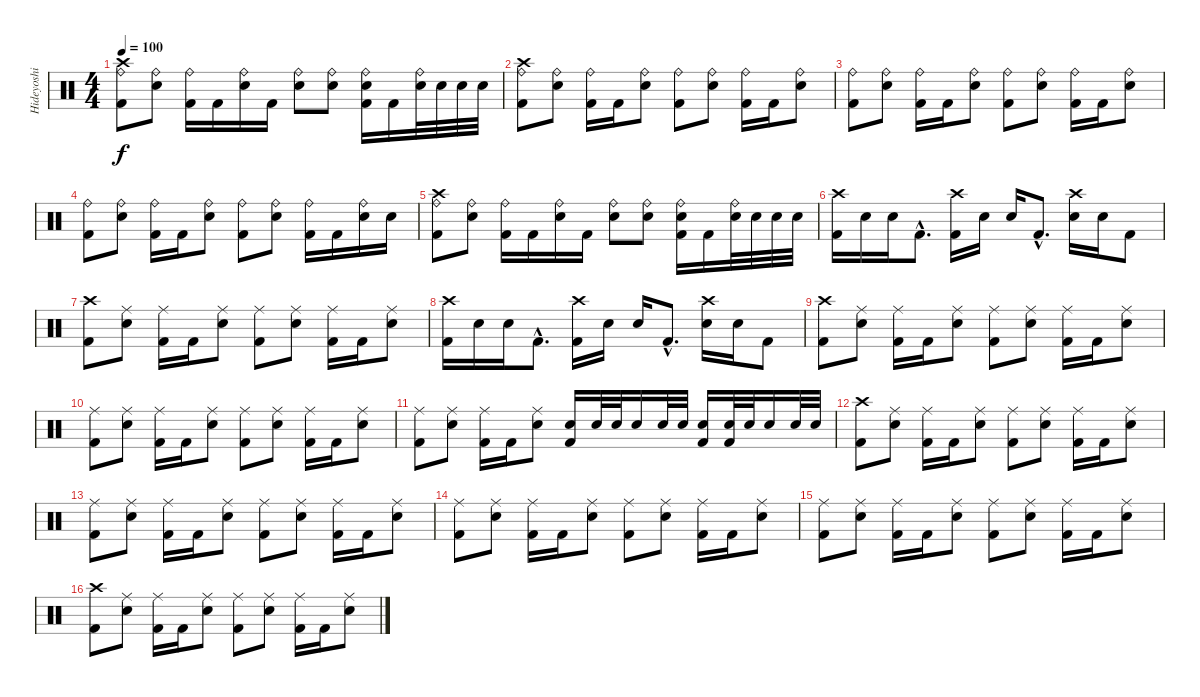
\track ("Hideyoshi" "Hideyoshi") {instrument percussion}
\staff {score}
\articulation defaults
\ts (4 4)
\tempo 100
\clef neutral
\ks c
("Crash high (hit)" "Kick (hit) 2" "Ride (bell)").8{dy f} ("Snare (hit) 2" "Ride (bell)").8 ("Kick (hit) 2" "Ride (bell)").16 "Kick (hit) 2".16 ("Snare (hit) 2" "Ride (bell)").16 "Kick (hit) 2".16 ("Snare (hit) 2" "Ride (bell)").8 ("Snare (hit) 2" "Ride (bell)").8 ("Snare (hit) 2" "Kick (hit) 2" "Ride (bell)").16 "Kick (hit) 2".16 ("Snare (hit) 2" "Ride (bell)").32 "Snare (hit) 2".32 "Snare (hit) 2".32 "Snare (hit) 2".32 |
("Crash high (hit)" "Kick (hit) 2" "Ride (bell)").8 ("Snare (hit) 2" "Ride (bell)").8 ("Kick (hit) 2" "Ride (bell)").16 "Kick (hit) 2".16 ("Snare (hit) 2" "Ride (bell)").8 ("Kick (hit) 2" "Ride (bell)").8 ("Snare (hit) 2" "Ride (bell)").8 ("Kick (hit) 2" "Ride (bell)").16 "Kick (hit) 2".16 ("Snare (hit) 2" "Ride (bell)").8 |
("Kick (hit) 2" "Ride (bell)").8 ("Snare (hit) 2" "Ride (bell)").8 ("Kick (hit) 2" "Ride (bell)").16 "Kick (hit) 2".16 ("Snare (hit) 2" "Ride (bell)").8 ("Kick (hit) 2" "Ride (bell)").8 ("Snare (hit) 2" "Ride (bell)").8 ("Kick (hit) 2" "Ride (bell)").16 "Kick (hit) 2".16 ("Snare (hit) 2" "Ride (bell)").8 |
("Kick (hit) 2" "Ride (bell)").8 ("Snare (hit) 2" "Ride (bell)").8 ("Kick (hit) 2" "Ride (bell)").16 "Kick (hit) 2".16 ("Snare (hit) 2" "Ride (bell)").8 ("Kick (hit) 2" "Ride (bell)").8 ("Snare (hit) 2" "Ride (bell)").8 ("Kick (hit) 2" "Ride (bell)").16 "Kick (hit) 2".16 ("Snare (hit) 2" "Ride (bell)").16 "Snare (hit) 2".16 |
("Crash high (hit)" "Ride (bell)" "Kick (hit) 2").8 ("Snare (hit) 2" "Ride (bell)").8 ("Kick (hit) 2" "Ride (bell)").16 "Kick (hit) 2".16 ("Snare (hit) 2" "Ride (bell)").16 "Kick (hit) 2".16 ("Snare (hit) 2" "Ride (bell)").8 ("Snare (hit) 2" "Ride (bell)").8 ("Snare (hit) 2" "Kick (hit) 2" "Ride (bell)").16 "Kick (hit) 2".16 ("Snare (hit) 2" "Ride (bell)").32 "Snare (hit) 2".32 "Snare (hit) 2".32 "Snare (hit) 2".32 |
("Crash high (hit)" "Kick (hit) 2").16 "Snare (hit) 2".16 "Snare (hit) 2".16 "Kick (hit) 2"{hac}.8{d} ("Crash high (hit)" "Kick (hit) 2").16 "Snare (hit) 2".16 "Snare (hit) 2".16 "Kick (hit) 2"{hac}.8{d} ("Crash high (hit)" "Snare (hit) 2").16 "Snare (hit) 2".16 "Kick (hit) 2".8 |
("Crash high (hit)" "Kick (hit) 2").8 ("Snare (hit) 2" "Ride (middle)").8 ("Kick (hit) 2" "Ride (middle)").16 "Kick (hit) 2".16 ("Snare (hit) 2" "Ride (middle)").8 ("Kick (hit) 2" "Ride (middle)").8 ("Snare (hit) 2" "Ride (middle)").8 ("Kick (hit) 2" "Ride (middle)").16 "Kick (hit) 2".16 ("Snare (hit) 2" "Ride (middle)").8 |
("Crash high (hit)" "Kick (hit) 2").16 "Snare (hit) 2".16 "Snare (hit) 2".16 "Kick (hit) 2"{hac}.8{d} ("Crash high (hit)" "Kick (hit) 2").16 "Snare (hit) 2".16 "Snare (hit) 2".16 "Kick (hit) 2"{hac}.8{d} ("Crash high (hit)" "Snare (hit) 2").16 "Snare (hit) 2".16 "Kick (hit) 2".8 |
("Crash high (hit)" "Kick (hit) 2").8 ("Snare (hit) 2" "Ride (middle)").8 ("Kick (hit) 2" "Ride (middle)").16 "Kick (hit) 2".16 ("Snare (hit) 2" "Ride (middle)").8 ("Kick (hit) 2" "Ride (middle)").8 ("Snare (hit) 2" "Ride (middle)").8 ("Kick (hit) 2" "Ride (middle)").16 "Kick (hit) 2".16 ("Snare (hit) 2" "Ride (middle)").8 |
("Ride (middle)" "Kick (hit) 2").8 ("Snare (hit) 2" "Ride (middle)").8 ("Kick (hit) 2" "Ride (middle)").16 "Kick (hit) 2".16 ("Snare (hit) 2" "Ride (middle)").8 ("Kick (hit) 2" "Ride (middle)").8 ("Snare (hit) 2" "Ride (middle)").8 ("Kick (hit) 2" "Ride (middle)").16 "Kick (hit) 2".16 ("Snare (hit) 2" "Ride (middle)").8 |
("Ride (middle)" "Kick (hit) 2").8 ("Snare (hit) 2" "Ride (middle)").8 ("Kick (hit) 2" "Ride (middle)").16 "Kick (hit) 2".16 ("Snare (hit) 2" "Ride (middle)").8 ("Kick (hit) 2" "Snare (hit) 2").16 "Snare (hit) 2".32 "Snare (hit) 2".32 "Snare (hit) 2".16 "Snare (hit) 2".32 "Snare (hit) 2".32 ("Snare (hit) 2" "Kick (hit) 2").16 ("Snare (hit) 2" "Kick (hit) 2").32 "Snare (hit) 2".32 "Snare (hit) 2".16 "Snare (hit) 2".32 "Snare (hit) 2".32 |
("Crash high (hit)" "Kick (hit) 2").8 ("Snare (hit) 2" "Ride (middle)").8 ("Kick (hit) 2" "Ride (middle)").16 "Kick (hit) 2".16 ("Snare (hit) 2" "Ride (middle)").8 ("Kick (hit) 2" "Ride (middle)").8 ("Snare (hit) 2" "Ride (middle)").8 ("Kick (hit) 2" "Ride (middle)").16 "Kick (hit) 2".16 ("Snare (hit) 2" "Ride (middle)").8 |
("Ride (middle)" "Kick (hit) 2").8 ("Snare (hit) 2" "Ride (middle)").8 ("Kick (hit) 2" "Ride (middle)").16 "Kick (hit) 2".16 ("Snare (hit) 2" "Ride (middle)").8 ("Kick (hit) 2" "Ride (middle)").8 ("Snare (hit) 2" "Ride (middle)").8 ("Kick (hit) 2" "Ride (middle)").16 "Kick (hit) 2".16 ("Snare (hit) 2" "Ride (middle)").8 |
("Ride (middle)" "Kick (hit) 2").8 ("Snare (hit) 2" "Ride (middle)").8 ("Kick (hit) 2" "Ride (middle)").16 "Kick (hit) 2".16 ("Snare (hit) 2" "Ride (middle)").8 ("Kick (hit) 2" "Ride (middle)").8 ("Snare (hit) 2" "Ride (middle)").8 ("Kick (hit) 2" "Ride (middle)").16 "Kick (hit) 2".16 ("Ride (middle)" "Snare (hit) 2").8 |
("Ride (middle)" "Kick (hit) 2").8 ("Snare (hit) 2" "Ride (middle)").8 ("Kick (hit) 2" "Ride (middle)").16 "Kick (hit) 2".16 ("Snare (hit) 2" "Ride (middle)").8 ("Kick (hit) 2" "Ride (middle)").8 ("Snare (hit) 2" "Ride (middle)").8 ("Kick (hit) 2" "Ride (middle)").16 "Kick (hit) 2".16 ("Snare (hit) 2" "Ride (middle)").8 |
("Crash high (hit)" "Kick (hit) 2").8 ("Snare (hit) 2" "Ride (middle)").8 ("Kick (hit) 2" "Ride (middle)").16 "Kick (hit) 2".16 ("Snare (hit) 2" "Ride (middle)").8 ("Kick (hit) 2" "Ride (middle)").8 ("Snare (hit) 2" "Ride (middle)").8 ("Kick (hit) 2" "Ride (middle)").16 "Kick (hit) 2".16 ("Snare (hit) 2" "Ride (middle)").8
